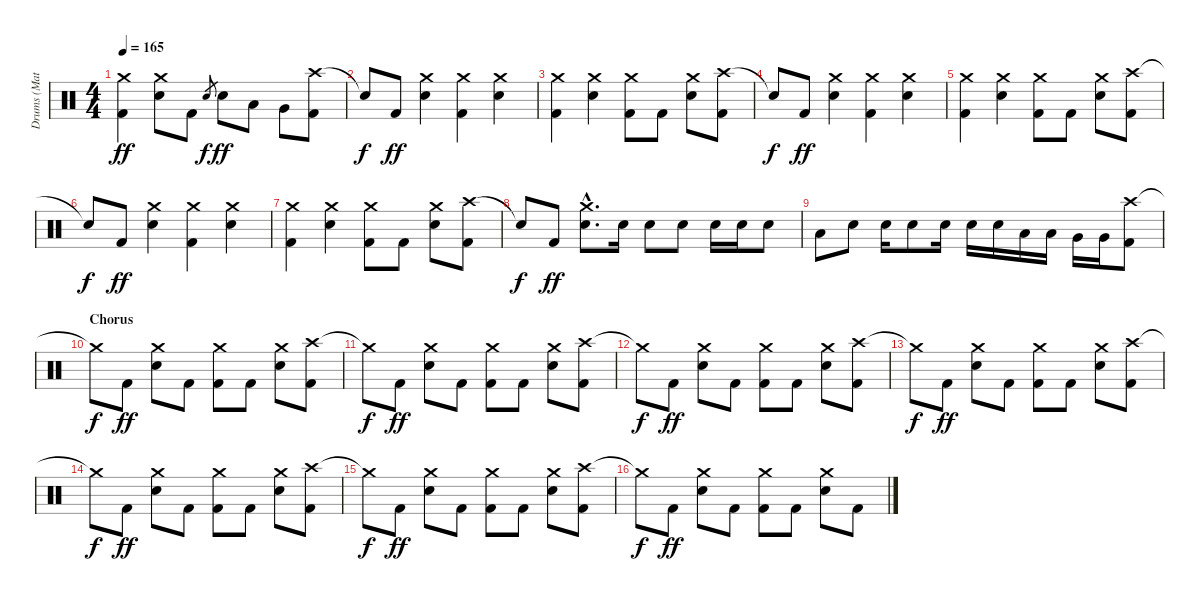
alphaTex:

\track ("Drums (Matt)" "Drums (Mat") {instrument percussion}
\staff {score}
\articulation defaults
\ts (4 4)
\tempo 165
\clef neutral
\ks c
("Crash medium (hit)" "Kick (hit) 2").4{dy ff} ("Crash medium (hit)" "Snare (hit) 2").8 "Kick (hit) 2".8 "Snare (hit) 2".8{gr dy f} "Snare (hit) 2".8{dy ff} "Low Tom (hit)".8 "Very Low Tom (hit)".8 ("Crash high (hit)" "Kick (hit) 2").8 |
"Snare (hit)"{t}.8{dy f} "Kick (hit) 2".8{dy ff} ("Crash medium (hit)" "Snare (hit) 2").4 ("Crash medium (hit)" "Kick (hit) 2").4 ("Crash medium (hit)" "Snare (hit) 2").4 |
("Crash medium (hit)" "Kick (hit) 2").4 ("Crash medium (hit)" "Snare (hit) 2").4 ("Crash medium (hit)" "Kick (hit) 2").8 "Kick (hit) 2".8 ("Crash medium (hit)" "Snare (hit) 2").8 ("Crash high (hit)" "Kick (hit) 2").8 |
"Snare (hit)"{t}.8{dy f} "Kick (hit) 2".8{dy ff} ("Crash medium (hit)" "Snare (hit) 2").4 ("Crash medium (hit)" "Kick (hit) 2").4 ("Crash medium (hit)" "Snare (hit) 2").4 |
("Crash medium (hit)" "Kick (hit) 2").4 ("Crash medium (hit)" "Snare (hit) 2").4 ("Crash medium (hit)" "Kick (hit) 2").8 "Kick (hit) 2".8 ("Crash medium (hit)" "Snare (hit) 2").8 ("Crash high (hit)" "Kick (hit) 2").8 |
"Snare (hit)"{t}.8{dy f} "Kick (hit) 2".8{dy ff} ("Crash medium (hit)" "Snare (hit) 2").4 ("Crash medium (hit)" "Kick (hit) 2").4 ("Crash medium (hit)" "Snare (hit) 2").4 |
("Crash medium (hit)" "Kick (hit) 2").4 ("Crash medium (hit)" "Snare (hit) 2").4 ("Crash medium (hit)" "Kick (hit) 2").8 "Kick (hit) 2".8 ("Crash medium (hit)" "Snare (hit) 2").8 ("Crash high (hit)" "Kick (hit) 2").8 |
"Snare (hit)"{t}.8{dy f} "Kick (hit) 2".8{dy ff} ("Crash medium (hit)"{hac} "Snare (hit) 2"{hac}).8{d} "Snare (hit) 2".16 "Snare (hit) 2".8 "Snare (hit) 2".8 "Snare (hit) 2".16 "Snare (hit) 2".16 "Snare (hit) 2".8 |
"Low Tom (hit)".8 "Snare (hit) 2".8 "Snare (hit) 2".16 "Snare (hit) 2".8 "Snare (hit) 2".16 "Snare (hit) 2".16 "Snare (hit) 2".16 "Low Tom (hit)".16 "Low Tom (hit)".16 "Very Low Tom (hit)".16 "Very Low Tom (hit)".16 ("Crash high (hit)" "Kick (hit) 2").8 |
\section ("" "Chorus")
"Crash medium (hit)"{t}.8{dy f} "Kick (hit) 2".8{dy ff} ("Crash medium (hit)" "Snare (hit) 2").8 "Kick (hit) 2".8 ("Crash medium (hit)" "Kick (hit) 2").8 "Kick (hit) 2".8 ("Crash medium (hit)" "Snare (hit) 2").8 ("Crash high (hit)" "Kick (hit) 2").8 |
"Crash medium (hit)"{t}.8{dy f} "Kick (hit) 2".8{dy ff} ("Crash medium (hit)" "Snare (hit) 2").8 "Kick (hit) 2".8 ("Crash medium (hit)" "Kick (hit) 2").8 "Kick (hit) 2".8 ("Crash medium (hit)" "Snare (hit) 2").8 ("Crash high (hit)" "Kick (hit) 2").8 |
"Crash medium (hit)"{t}.8{dy f} "Kick (hit) 2".8{dy ff} ("Crash medium (hit)" "Snare (hit) 2").8 "Kick (hit) 2".8 ("Crash medium (hit)" "Kick (hit) 2").8 "Kick (hit) 2".8 ("Crash medium (hit)" "Snare (hit) 2").8 ("Crash high (hit)" "Kick (hit) 2").8 |
"Crash medium (hit)"{t}.8{dy f} "Kick (hit) 2".8{dy ff} ("Crash medium (hit)" "Snare (hit) 2").8 "Kick (hit) 2".8 ("Crash medium (hit)" "Kick (hit) 2").8 "Kick (hit) 2".8 ("Crash medium (hit)" "Snare (hit) 2").8 ("Crash high (hit)" "Kick (hit) 2").8 |
"Crash medium (hit)"{t}.8{dy f} "Kick (hit) 2".8{dy ff} ("Crash medium (hit)" "Snare (hit) 2").8 "Kick (hit) 2".8 ("Crash medium (hit)" "Kick (hit) 2").8 "Kick (hit) 2".8 ("Crash medium (hit)" "Snare (hit) 2").8 ("Crash high (hit)" "Kick (hit) 2").8 |
"Crash medium (hit)"{t}.8{dy f} "Kick (hit) 2".8{dy ff} ("Crash medium (hit)" "Snare (hit) 2").8 "Kick (hit) 2".8 ("Crash medium (hit)" "Kick (hit) 2").8 "Kick (hit) 2".8 ("Crash medium (hit)" "Snare (hit) 2").8 ("Crash high (hit)" "Kick (hit) 2").8 |
"Crash medium (hit)"{t}.8{dy f} "Kick (hit) 2".8{dy ff} ("Crash medium (hit)" "Snare (hit) 2").8 "Kick (hit) 2".8 ("Crash medium (hit)" "Kick (hit) 2").8 "Kick (hit) 2".8 ("Crash medium (hit)" "Snare (hit) 2").8 "Kick (hit) 2".8
